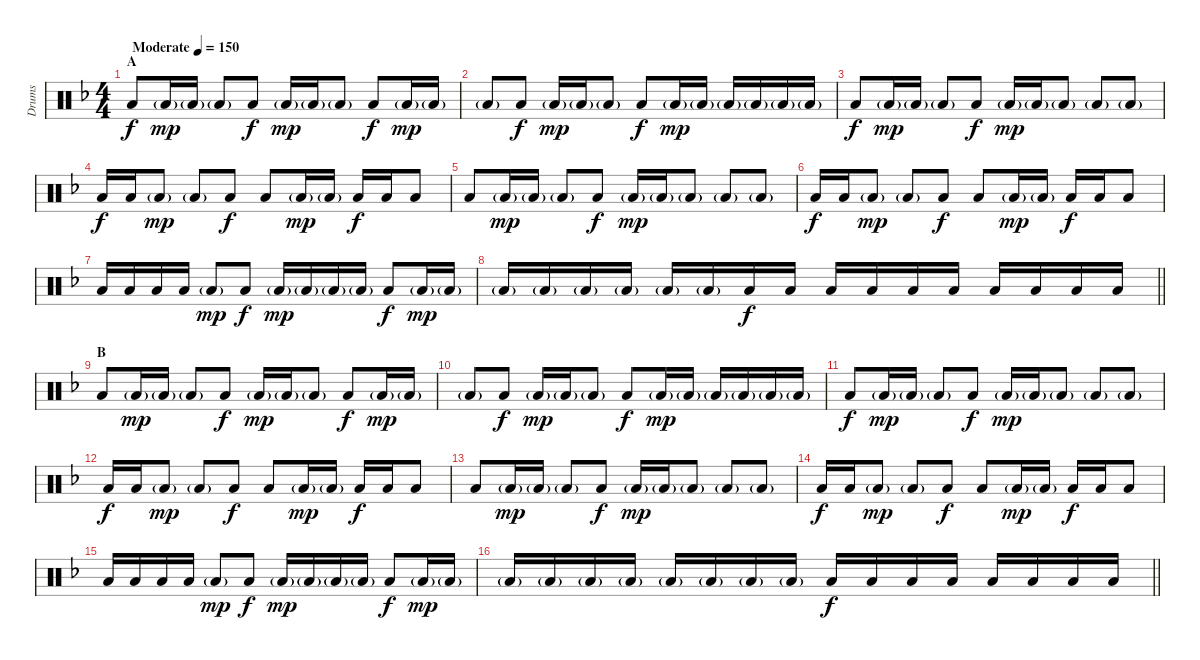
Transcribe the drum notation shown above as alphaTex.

\track ("Drums" "Drums") {instrument percussion}
\staff {score}
\articulation defaults
\ts (4 4)
\section ("" "A")
\tempo (150 "Moderate")
\clef neutral
\ks f "Low Tom (hit)".8{dy f} "Low Tom (hit)"{g}.16{dy mp} "Low Tom (hit)"{g}.16 "Low Tom (hit)"{g}.8 "Low Tom (hit)".8{dy f} "Low Tom (hit)"{g}.16{dy mp} "Low Tom (hit)"{g}.16 "Low Tom (hit)"{g}.8 "Low Tom (hit)".8{dy f} "Low Tom (hit)"{g}.16{dy mp} "Low Tom (hit)"{g}.16
|
"Low Tom (hit)"{g}.8 "Low Tom (hit)".8{dy f} "Low Tom (hit)"{g}.16{dy mp} "Low Tom (hit)"{g}.16 "Low Tom (hit)"{g}.8 "Low Tom (hit)".8{dy f} "Low Tom (hit)"{g}.16{dy mp} "Low Tom (hit)"{g}.16 "Low Tom (hit)"{g}.16 "Low Tom (hit)"{g}.16 "Low Tom (hit)"{g}.16 "Low Tom (hit)"{g}.16 |
"Low Tom (hit)".8{dy f} "Low Tom (hit)"{g}.16{dy mp} "Low Tom (hit)"{g}.16 "Low Tom (hit)"{g}.8 "Low Tom (hit)".8{dy f} "Low Tom (hit)"{g}.16{dy mp} "Low Tom (hit)"{g}.16 "Low Tom (hit)"{g}.8 "Low Tom (hit)"{g}.8 "Low Tom (hit)"{g}.8 |
"Low Tom (hit)".16{dy f} "Low Tom (hit)".16 "Low Tom (hit)"{g}.8{dy mp} "Low Tom (hit)"{g}.8 "Low Tom (hit)".8{dy f} "Low Tom (hit)".8 "Low Tom (hit)"{g}.16{dy mp} "Low Tom (hit)"{g}.16 "Low Tom (hit)".16{dy f} "Low Tom (hit)".16 "Low Tom (hit)".8 |
"Low Tom (hit)".8 "Low Tom (hit)"{g}.16{dy mp} "Low Tom (hit)"{g}.16 "Low Tom (hit)"{g}.8 "Low Tom (hit)".8{dy f} "Low Tom (hit)"{g}.16{dy mp} "Low Tom (hit)"{g}.16 "Low Tom (hit)"{g}.8 "Low Tom (hit)"{g}.8 "Low Tom (hit)"{g}.8 |
"Low Tom (hit)".16{dy f} "Low Tom (hit)".16 "Low Tom (hit)"{g}.8{dy mp} "Low Tom (hit)"{g}.8 "Low Tom (hit)".8{dy f} "Low Tom (hit)".8 "Low Tom (hit)"{g}.16{dy mp} "Low Tom (hit)"{g}.16 "Low Tom (hit)".16{dy f} "Low Tom (hit)".16 "Low Tom (hit)".8 |
"Low Tom (hit)".16 "Low Tom (hit)".16 "Low Tom (hit)".16 "Low Tom (hit)".16 "Low Tom (hit)"{g}.8{dy mp} "Low Tom (hit)".8{dy f} "Low Tom (hit)"{g}.16{dy mp} "Low Tom (hit)"{g}.16 "Low Tom (hit)"{g}.16 "Low Tom (hit)"{g}.16 "Low Tom (hit)".8{dy f} "Low Tom (hit)"{g}.16{dy mp} "Low Tom (hit)"{g}.16 |
\barLineRight lightlight "Low Tom (hit)"{g}.16 "Low Tom (hit)"{g}.16 "Low Tom (hit)"{g}.16 "Low Tom (hit)"{g}.16 "Low Tom (hit)"{g}.16 "Low Tom (hit)"{g}.16 "Low Tom (hit)".16{dy f} "Low Tom (hit)".16 "Low Tom (hit)".16 "Low Tom (hit)".16 "Low Tom (hit)".16 "Low Tom (hit)".16 "Low Tom (hit)".16 "Low Tom (hit)".16 "Low Tom (hit)".16 "Low Tom (hit)".16
|
\section ("" "B")
"Low Tom (hit)".8 "Low Tom (hit)"{g}.16{dy mp} "Low Tom (hit)"{g}.16 "Low Tom (hit)"{g}.8 "Low Tom (hit)".8{dy f} "Low Tom (hit)"{g}.16{dy mp} "Low Tom (hit)"{g}.16 "Low Tom (hit)"{g}.8 "Low Tom (hit)".8{dy f} "Low Tom (hit)"{g}.16{dy mp} "Low Tom (hit)"{g}.16 |
"Low Tom (hit)"{g}.8 "Low Tom (hit)".8{dy f} "Low Tom (hit)"{g}.16{dy mp} "Low Tom (hit)"{g}.16 "Low Tom (hit)"{g}.8 "Low Tom (hit)".8{dy f} "Low Tom (hit)"{g}.16{dy mp} "Low Tom (hit)"{g}.16 "Low Tom (hit)"{g}.16 "Low Tom (hit)"{g}.16 "Low Tom (hit)"{g}.16 "Low Tom (hit)"{g}.16 |
"Low Tom (hit)".8{dy f} "Low Tom (hit)"{g}.16{dy mp} "Low Tom (hit)"{g}.16 "Low Tom (hit)"{g}.8 "Low Tom (hit)".8{dy f} "Low Tom (hit)"{g}.16{dy mp} "Low Tom (hit)"{g}.16 "Low Tom (hit)"{g}.8 "Low Tom (hit)"{g}.8 "Low Tom (hit)"{g}.8 |
"Low Tom (hit)".16{dy f} "Low Tom (hit)".16 "Low Tom (hit)"{g}.8{dy mp} "Low Tom (hit)"{g}.8 "Low Tom (hit)".8{dy f} "Low Tom (hit)".8 "Low Tom (hit)"{g}.16{dy mp} "Low Tom (hit)"{g}.16 "Low Tom (hit)".16{dy f} "Low Tom (hit)".16 "Low Tom (hit)".8 |
"Low Tom (hit)".8 "Low Tom (hit)"{g}.16{dy mp} "Low Tom (hit)"{g}.16 "Low Tom (hit)"{g}.8 "Low Tom (hit)".8{dy f} "Low Tom (hit)"{g}.16{dy mp} "Low Tom (hit)"{g}.16 "Low Tom (hit)"{g}.8 "Low Tom (hit)"{g}.8 "Low Tom (hit)"{g}.8 |
"Low Tom (hit)".16{dy f} "Low Tom (hit)".16 "Low Tom (hit)"{g}.8{dy mp} "Low Tom (hit)"{g}.8 "Low Tom (hit)".8{dy f} "Low Tom (hit)".8 "Low Tom (hit)"{g}.16{dy mp} "Low Tom (hit)"{g}.16 "Low Tom (hit)".16{dy f} "Low Tom (hit)".16 "Low Tom (hit)".8 |
"Low Tom (hit)".16 "Low Tom (hit)".16 "Low Tom (hit)".16 "Low Tom (hit)".16 "Low Tom (hit)"{g}.8{dy mp} "Low Tom (hit)".8{dy f} "Low Tom (hit)"{g}.16{dy mp} "Low Tom (hit)"{g}.16 "Low Tom (hit)"{g}.16 "Low Tom (hit)"{g}.16 "Low Tom (hit)".8{dy f} "Low Tom (hit)"{g}.16{dy mp} "Low Tom (hit)"{g}.16 |
\barLineRight lightlight "Low Tom (hit)"{g}.16 "Low Tom (hit)"{g}.16 "Low Tom (hit)"{g}.16 "Low Tom (hit)"{g}.16 "Low Tom (hit)"{g}.16 "Low Tom (hit)"{g}.16 "Low Tom (hit)"{g}.16 "Low Tom (hit)"{g}.16 "Low Tom (hit)".16{dy f} "Low Tom (hit)".16 "Low Tom (hit)".16 "Low Tom (hit)".16 "Low Tom (hit)".16 "Low Tom (hit)".16 "Low Tom (hit)".16 "Low Tom (hit)".16
